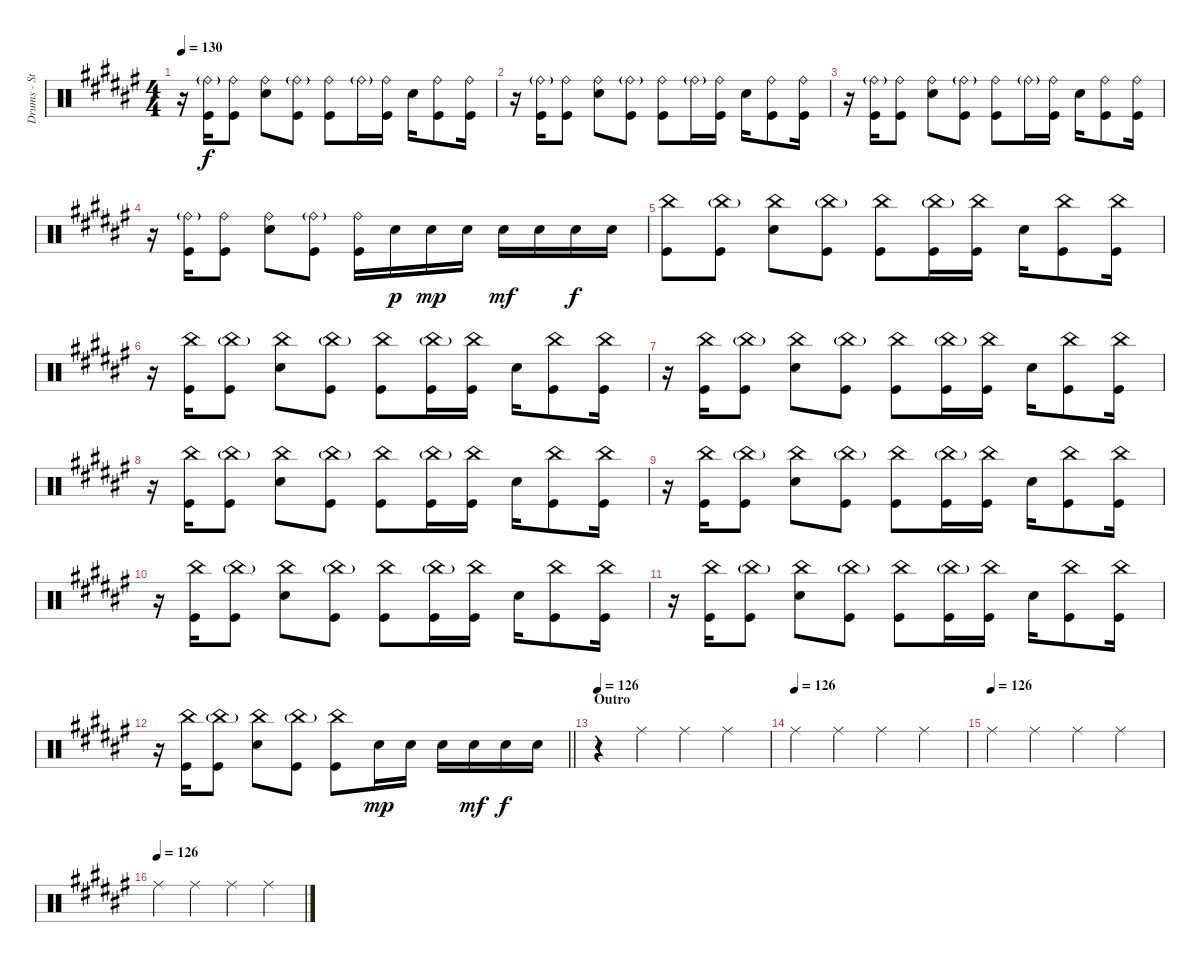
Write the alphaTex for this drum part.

\track ("Drums - Stef Broks" "Drums - St") {instrument percussion}
\staff {score}
\articulation defaults
\ts (4 4)
\tempo 130
\clef neutral
\ks d#minor
r.16{dy f} ("Kick (hit)" "Ride (bell)"{g}).16 ("Kick (hit)" "Ride (bell)").8 ("Ride (bell)" "Snare (hit) 2").8 ("Ride (bell)"{g} "Kick (hit)").8 ("Ride (bell)" "Kick (hit)").8 "Ride (bell)"{g}.16 ("Ride (bell)" "Kick (hit)").16 "Snare (hit) 2".16 ("Kick (hit)" "Ride (bell)").8 ("Kick (hit)" "Ride (bell)").16 |
r.16 ("Kick (hit)" "Ride (bell)"{g}).16 ("Kick (hit)" "Ride (bell)").8 ("Ride (bell)" "Snare (hit) 2").8 ("Ride (bell)"{g} "Kick (hit)").8 ("Ride (bell)" "Kick (hit)").8 "Ride (bell)"{g}.16 ("Ride (bell)" "Kick (hit)").16 "Snare (hit) 2".16 ("Kick (hit)" "Ride (bell)").8 ("Kick (hit)" "Ride (bell)").16 |
r.16 ("Kick (hit)" "Ride (bell)"{g}).16 ("Kick (hit)" "Ride (bell)").8 ("Ride (bell)" "Snare (hit) 2").8 ("Ride (bell)"{g} "Kick (hit)").8 ("Ride (bell)" "Kick (hit)").8 "Ride (bell)"{g}.16 ("Ride (bell)" "Kick (hit)").16 "Snare (hit) 2".16 ("Kick (hit)" "Ride (bell)").8 ("Kick (hit)" "Ride (bell)").16 |
r.16 ("Kick (hit)" "Ride (bell)"{g}).16 ("Kick (hit)" "Ride (bell)").8 ("Ride (bell)" "Snare (hit) 2").8 ("Ride (bell)"{g} "Kick (hit)").8 ("Ride (bell)" "Kick (hit)").16 "Snare (hit) 2".16{dy p} "Snare (hit) 2".16{dy mp} "Snare (hit) 2".16 "Snare (hit) 2".16{dy mf} "Snare (hit) 2".16 "Snare (hit) 2".16{dy f} "Snare (hit) 2".16 |
("Kick (hit)" "China (hit)").8 ("Kick (hit)" "China (hit)"{g}).8 ("Snare (hit) 2" "China (hit)").8 ("Kick (hit)" "China (hit)"{g}).8 ("Kick (hit)" "China (hit)").8 ("China (hit)"{g} "Kick (hit)").16 ("Kick (hit)" "China (hit)").16 "Snare (hit) 2".16 ("Kick (hit)" "China (hit)").8 ("Kick (hit)" "China (hit)").16 |
r.16 ("Kick (hit)" "China (hit)").16 ("Kick (hit)" "China (hit)"{g}).8 ("Snare (hit) 2" "China (hit)").8 ("Kick (hit)" "China (hit)"{g}).8 ("Kick (hit)" "China (hit)").8 ("China (hit)"{g} "Kick (hit)").16 ("Kick (hit)" "China (hit)").16 "Snare (hit) 2".16 ("Kick (hit)" "China (hit)").8 ("Kick (hit)" "China (hit)").16 |
r.16 ("Kick (hit)" "China (hit)").16 ("Kick (hit)" "China (hit)"{g}).8 ("Snare (hit) 2" "China (hit)").8 ("Kick (hit)" "China (hit)"{g}).8 ("Kick (hit)" "China (hit)").8 ("China (hit)"{g} "Kick (hit)").16 ("Kick (hit)" "China (hit)").16 "Snare (hit) 2".16 ("Kick (hit)" "China (hit)").8 ("Kick (hit)" "China (hit)").16 |
r.16 ("Kick (hit)" "China (hit)").16 ("Kick (hit)" "China (hit)"{g}).8 ("Snare (hit) 2" "China (hit)").8 ("Kick (hit)" "China (hit)"{g}).8 ("Kick (hit)" "China (hit)").8 ("China (hit)"{g} "Kick (hit)").16 ("Kick (hit)" "China (hit)").16 "Snare (hit) 2".16 ("Kick (hit)" "China (hit)").8 ("Kick (hit)" "China (hit)").16 |
r.16 ("Kick (hit)" "China (hit)").16 ("Kick (hit)" "China (hit)"{g}).8 ("Snare (hit) 2" "China (hit)").8 ("Kick (hit)" "China (hit)"{g}).8 ("Kick (hit)" "China (hit)").8 ("China (hit)"{g} "Kick (hit)").16 ("Kick (hit)" "China (hit)").16 "Snare (hit) 2".16 ("Kick (hit)" "China (hit)").8 ("Kick (hit)" "China (hit)").16 |
r.16 ("Kick (hit)" "China (hit)").16 ("Kick (hit)" "China (hit)"{g}).8 ("Snare (hit) 2" "China (hit)").8 ("Kick (hit)" "China (hit)"{g}).8 ("Kick (hit)" "China (hit)").8 ("China (hit)"{g} "Kick (hit)").16 ("Kick (hit)" "China (hit)").16 "Snare (hit) 2".16 ("Kick (hit)" "China (hit)").8 ("Kick (hit)" "China (hit)").16 |
r.16 ("Kick (hit)" "China (hit)").16 ("Kick (hit)" "China (hit)"{g}).8 ("Snare (hit) 2" "China (hit)").8 ("Kick (hit)" "China (hit)"{g}).8 ("Kick (hit)" "China (hit)").8 ("China (hit)"{g} "Kick (hit)").16 ("Kick (hit)" "China (hit)").16 "Snare (hit) 2".16 ("Kick (hit)" "China (hit)").8 ("Kick (hit)" "China (hit)").16 |
\barLineRight lightlight
r.16 ("Kick (hit)" "China (hit)").16 ("Kick (hit)" "China (hit)"{g}).8 ("Snare (hit) 2" "China (hit)").8 ("Kick (hit)" "China (hit)"{g}).8 ("Kick (hit)" "China (hit)").8 "Snare (hit) 2".16{dy mp} "Snare (hit) 2".16 "Snare (hit) 2".16 "Snare (hit) 2".16{dy mf} "Snare (hit) 2".16{dy f} "Snare (hit) 2".16 |
\section ("" "Outro")
\tempo 126
r.4 "Ride (middle)".4 "Ride (middle)".4 "Ride (middle)".4 |
\tempo (126)
"Ride (middle)".4 "Ride (middle)".4 "Ride (middle)".4 "Ride (middle)".4 |
\tempo (126)
"Ride (middle)".4 "Ride (middle)".4 "Ride (middle)".4 "Ride (middle)".4 |
\tempo (126)
"Ride (middle)".4 "Ride (middle)".4 "Ride (middle)".4 "Ride (middle)".4
